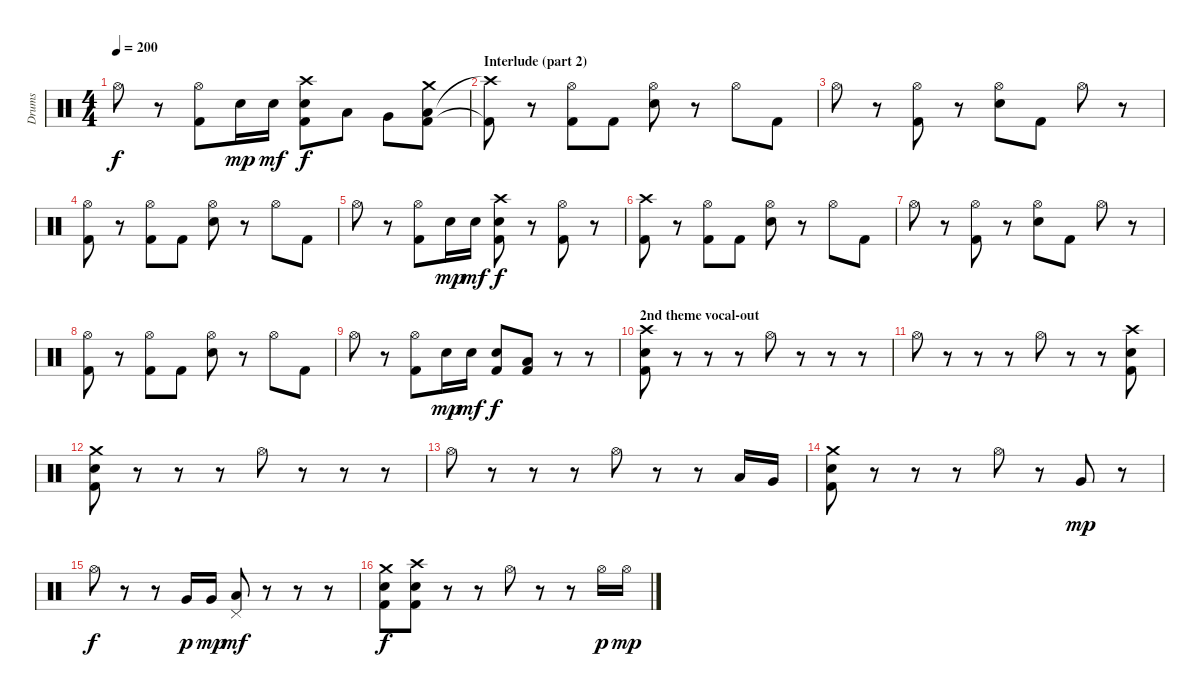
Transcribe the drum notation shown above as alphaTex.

\track ("Drums" "Drums") {instrument percussion}
\staff {score}
\articulation defaults
\ts (4 4)
\tempo 200
\clef neutral
\ks c "Hi-Hat (open)".8{dy f}
r.8 ("Kick (hit) 2" "Hi-Hat (open)").8 "Electric Snare (hit)".16{dy mp} "Electric Snare (hit)".16{dy mf} ("Kick (hit) 2" "Electric Snare (hit)" "Crash high (hit)").8{dy f} "Low Tom (hit)".8 "Very Low Tom (hit)".8 ("Kick (hit) 2" "Low Floor Tom (hit)" "Crash medium (hit)").8 |
\section ("" "Interlude (part 2)")
("Kick (hit) 2"{t} "Crash high (hit)"{t}).8 r.8 ("Kick (hit) 2" "Hi-Hat (open)").8 "Kick (hit) 2".8 ("Electric Snare (hit)" "Hi-Hat (open)").8 r.8 "Hi-Hat (open)".8 "Kick (hit) 2".8 |
"Hi-Hat (open)".8 r.8 ("Kick (hit) 2" "Hi-Hat (open)").8 r.8 ("Electric Snare (hit)" "Hi-Hat (open)").8 "Kick (hit) 2".8 "Hi-Hat (open)".8 r.8 |
("Kick (hit) 2" "Hi-Hat (open)").8 r.8 ("Kick (hit) 2" "Hi-Hat (open)").8 "Kick (hit) 2".8 ("Electric Snare (hit)" "Hi-Hat (open)").8 r.8 "Hi-Hat (open)".8 "Kick (hit) 2".8 |
"Hi-Hat (open)".8 r.8 ("Kick (hit) 2" "Hi-Hat (open)").8 "Electric Snare (hit)".16{dy mp} "Electric Snare (hit)".16{dy mf} ("Kick (hit) 2" "Electric Snare (hit)" "Crash high (hit)").8{dy f} r.8 ("Kick (hit) 2" "Hi-Hat (open)").8 r.8 |
("Kick (hit) 2" "Crash high (hit)").8 r.8 ("Kick (hit) 2" "Hi-Hat (open)").8 "Kick (hit) 2".8 ("Electric Snare (hit)" "Hi-Hat (open)").8 r.8 "Hi-Hat (open)".8 "Kick (hit) 2".8 |
"Hi-Hat (open)".8 r.8 ("Kick (hit) 2" "Hi-Hat (open)").8 r.8 ("Electric Snare (hit)" "Hi-Hat (open)").8 "Kick (hit) 2".8 "Hi-Hat (open)".8 r.8 |
("Kick (hit) 2" "Hi-Hat (open)").8 r.8 ("Kick (hit) 2" "Hi-Hat (open)").8 "Kick (hit) 2".8 ("Electric Snare (hit)" "Hi-Hat (open)").8 r.8 "Hi-Hat (open)".8 "Kick (hit) 2".8 |
"Hi-Hat (open)".8 r.8 ("Kick (hit) 2" "Hi-Hat (open)").8 "Electric Snare (hit)".16{dy mp} "Electric Snare (hit)".16{dy mf} ("Kick (hit) 2" "Electric Snare (hit)").8{dy f} ("Kick (hit) 2" "Low Tom (hit)").8 r.8 r.8 |
\section ("" "2nd theme vocal-out")
("Kick (hit) 2" "Electric Snare (hit)" "Crash high (hit)").8 r.8 r.8 r.8 "Hi-Hat (open)".8 r.8 r.8 r.8 |
"Hi-Hat (open)".8 r.8 r.8 r.8 "Hi-Hat (open)".8 r.8 r.8 ("Kick (hit) 2" "Electric Snare (hit)" "Crash high (hit)").8 |
("Kick (hit) 2" "Electric Snare (hit)" "Crash medium (hit)").8 r.8 r.8 r.8 "Hi-Hat (open)".8 r.8 r.8 r.8 |
"Hi-Hat (open)".8 r.8 r.8 r.8 "Hi-Hat (open)".8 r.8 r.8 "Low Tom (hit)".16 "Very Low Tom (hit)".16 |
("Kick (hit) 2" "Electric Snare (hit)" "Crash medium (hit)").8 r.8 r.8 r.8 "Hi-Hat (open)".8 r.8 "Very Low Tom (hit)".8{dy mp} r.8 |
"Hi-Hat (open)".8{dy f} r.8 r.8 "Very Low Tom (hit)".16{dy p} "Very Low Tom (hit)".16{dy mp} ("Low Floor Tom (hit)" "Pedal Hi-Hat (hit)").8{dy mf} r.8 r.8 r.8 |
("Kick (hit) 2" "Electric Snare (hit)" "Crash medium (hit)").8{dy f} ("Kick (hit) 2" "Electric Snare (hit)" "Crash high (hit)").8 r.8 r.8 "Hi-Hat (open)".8 r.8 r.8 "Hi-Hat (open)".16{dy p} "Hi-Hat (open)".16{dy mp}
